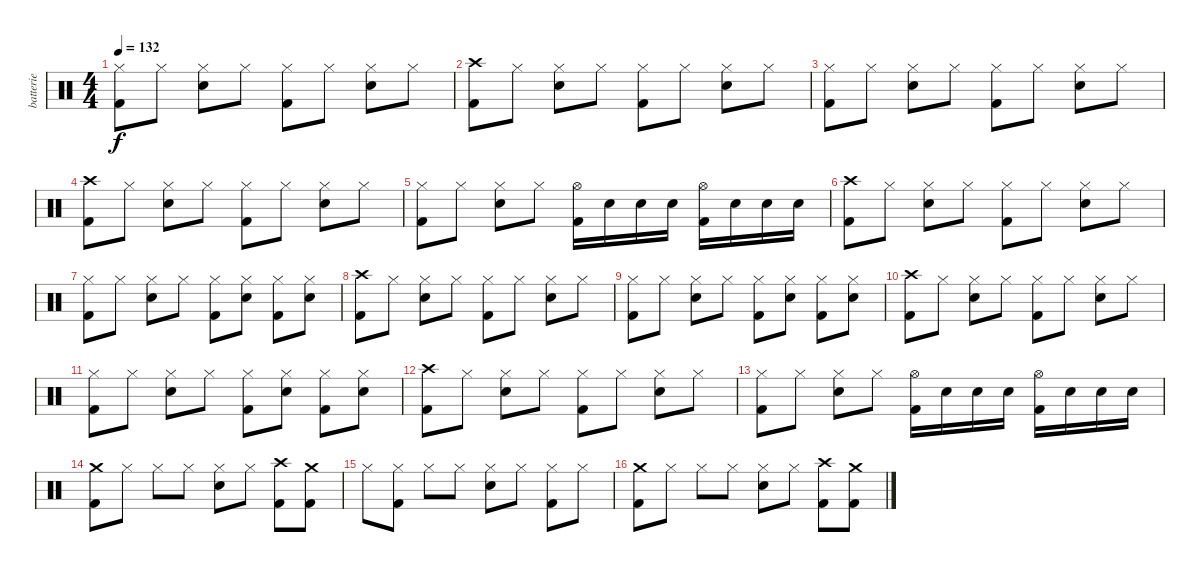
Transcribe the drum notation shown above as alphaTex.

\track ("batterie" "batterie") {instrument percussion}
\staff {score}
\articulation defaults
\ts (4 4)
\tempo 132
\clef neutral
\ks c
("Kick (hit) 2" "Hi-Hat (closed)").8{dy f} "Hi-Hat (closed)".8 ("Electric Snare (hit)" "Hi-Hat (closed)").8 "Hi-Hat (closed)".8 ("Kick (hit) 2" "Hi-Hat (closed)").8 "Hi-Hat (closed)".8 ("Electric Snare (hit)" "Hi-Hat (closed)").8 "Hi-Hat (closed)".8 |
("Crash high (hit)" "Kick (hit) 2").8 "Hi-Hat (closed)".8 ("Electric Snare (hit)" "Hi-Hat (closed)").8 "Hi-Hat (closed)".8 ("Kick (hit) 2" "Hi-Hat (closed)").8 "Hi-Hat (closed)".8 ("Electric Snare (hit)" "Hi-Hat (closed)").8 "Hi-Hat (closed)".8 |
("Kick (hit) 2" "Hi-Hat (closed)").8 "Hi-Hat (closed)".8 ("Electric Snare (hit)" "Hi-Hat (closed)").8 "Hi-Hat (closed)".8 ("Kick (hit) 2" "Hi-Hat (closed)").8 "Hi-Hat (closed)".8 ("Electric Snare (hit)" "Hi-Hat (closed)").8 "Hi-Hat (closed)".8 |
("Crash high (hit)" "Kick (hit) 2").8 "Hi-Hat (closed)".8 ("Electric Snare (hit)" "Hi-Hat (closed)").8 "Hi-Hat (closed)".8 ("Kick (hit) 2" "Hi-Hat (closed)").8 "Hi-Hat (closed)".8 ("Electric Snare (hit)" "Hi-Hat (closed)").8 "Hi-Hat (closed)".8 |
("Kick (hit) 2" "Hi-Hat (closed)").8 "Hi-Hat (closed)".8 ("Electric Snare (hit)" "Hi-Hat (closed)").8 "Hi-Hat (closed)".8 ("Kick (hit) 2" "Hi-Hat (open)").16 "Electric Snare (hit)".16 "Electric Snare (hit)".16 "Electric Snare (hit)".16 ("Kick (hit) 2" "Hi-Hat (open)").16 "Electric Snare (hit)".16 "Electric Snare (hit)".16 "Electric Snare (hit)".16 |
("Crash high (hit)" "Kick (hit) 2").8 "Hi-Hat (closed)".8 ("Electric Snare (hit)" "Hi-Hat (closed)").8 "Hi-Hat (closed)".8 ("Kick (hit) 2" "Hi-Hat (closed)").8 "Hi-Hat (closed)".8 ("Electric Snare (hit)" "Hi-Hat (closed)").8 "Hi-Hat (closed)".8 |
("Kick (hit) 2" "Hi-Hat (closed)").8 "Hi-Hat (closed)".8 ("Electric Snare (hit)" "Hi-Hat (closed)").8 "Hi-Hat (closed)".8 ("Kick (hit) 2" "Hi-Hat (closed)").8 ("Electric Snare (hit)" "Hi-Hat (closed)").8 ("Kick (hit) 2" "Hi-Hat (closed)").8 ("Electric Snare (hit)" "Hi-Hat (closed)").8 |
("Crash high (hit)" "Kick (hit) 2").8 "Hi-Hat (closed)".8 ("Electric Snare (hit)" "Hi-Hat (closed)").8 "Hi-Hat (closed)".8 ("Kick (hit) 2" "Hi-Hat (closed)").8 "Hi-Hat (closed)".8 ("Electric Snare (hit)" "Hi-Hat (closed)").8 "Hi-Hat (closed)".8 |
("Kick (hit) 2" "Hi-Hat (closed)").8 "Hi-Hat (closed)".8 ("Electric Snare (hit)" "Hi-Hat (closed)").8 "Hi-Hat (closed)".8 ("Kick (hit) 2" "Hi-Hat (closed)").8 ("Electric Snare (hit)" "Hi-Hat (closed)").8 ("Kick (hit) 2" "Hi-Hat (closed)").8 ("Electric Snare (hit)" "Hi-Hat (closed)").8 |
("Crash high (hit)" "Kick (hit) 2").8 "Hi-Hat (closed)".8 ("Electric Snare (hit)" "Hi-Hat (closed)").8 "Hi-Hat (closed)".8 ("Kick (hit) 2" "Hi-Hat (closed)").8 "Hi-Hat (closed)".8 ("Electric Snare (hit)" "Hi-Hat (closed)").8 "Hi-Hat (closed)".8 |
("Kick (hit) 2" "Hi-Hat (closed)").8 "Hi-Hat (closed)".8 ("Electric Snare (hit)" "Hi-Hat (closed)").8 "Hi-Hat (closed)".8 ("Kick (hit) 2" "Hi-Hat (closed)").8 ("Electric Snare (hit)" "Hi-Hat (closed)").8 ("Kick (hit) 2" "Hi-Hat (closed)").8 ("Electric Snare (hit)" "Hi-Hat (closed)").8 |
("Crash high (hit)" "Kick (hit) 2").8 "Hi-Hat (closed)".8 ("Electric Snare (hit)" "Hi-Hat (closed)").8 "Hi-Hat (closed)".8 ("Kick (hit) 2" "Hi-Hat (closed)").8 "Hi-Hat (closed)".8 ("Electric Snare (hit)" "Hi-Hat (closed)").8 "Hi-Hat (closed)".8 |
("Kick (hit) 2" "Hi-Hat (closed)").8 "Hi-Hat (closed)".8 ("Electric Snare (hit)" "Hi-Hat (closed)").8 "Hi-Hat (closed)".8 ("Kick (hit) 2" "Hi-Hat (open)").16 "Electric Snare (hit)".16 "Electric Snare (hit)".16 "Electric Snare (hit)".16 ("Kick (hit) 2" "Hi-Hat (open)").16 "Electric Snare (hit)".16 "Electric Snare (hit)".16 "Electric Snare (hit)".16 |
("Crash medium (hit)" "Kick (hit) 2").8 "Hi-Hat (closed)".8 "Hi-Hat (closed)".8 "Hi-Hat (closed)".8 ("Electric Snare (hit)" "Hi-Hat (closed)").8 "Hi-Hat (closed)".8 ("Crash high (hit)" "Kick (hit) 2").8 ("Crash medium (hit)" "Kick (hit) 2").8 |
"Hi-Hat (closed)".8 ("Kick (hit) 2" "Hi-Hat (closed)").8 "Hi-Hat (closed)".8 "Hi-Hat (closed)".8 ("Electric Snare (hit)" "Hi-Hat (closed)").8 "Hi-Hat (closed)".8 ("Kick (hit) 2" "Hi-Hat (closed)").8 "Hi-Hat (closed)".8 |
("Crash medium (hit)" "Kick (hit) 2").8 "Hi-Hat (closed)".8 "Hi-Hat (closed)".8 "Hi-Hat (closed)".8 ("Electric Snare (hit)" "Hi-Hat (closed)").8 "Hi-Hat (closed)".8 ("Crash high (hit)" "Kick (hit) 2").8 ("Crash medium (hit)" "Kick (hit) 2").8
